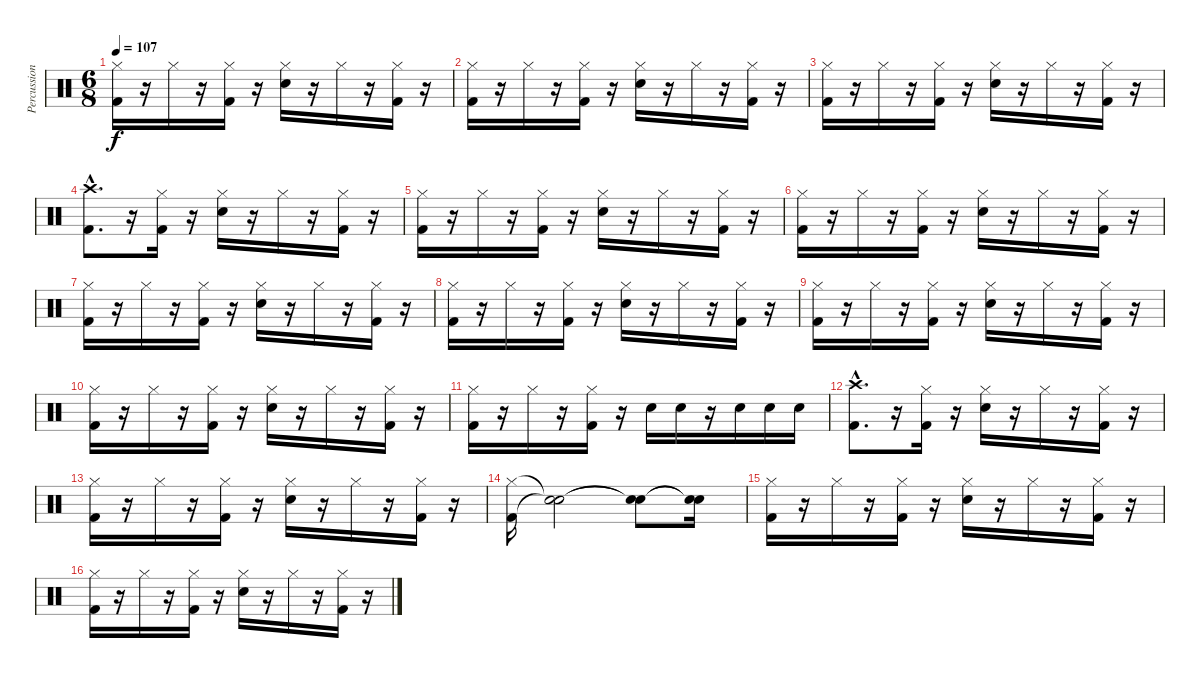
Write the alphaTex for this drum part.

\track ("Percussions" "Percussion") {instrument percussion}
\staff {score}
\articulation defaults
\ts (6 8)
\tempo 107
\clef neutral
\ks c
("Kick (hit) 2" "Hi-Hat (closed)").16{dy f} r.16 "Hi-Hat (closed)".16 r.16 ("Kick (hit) 2" "Hi-Hat (closed)").16 r.16 ("Snare (hit) 2" "Hi-Hat (closed)").16 r.16 "Hi-Hat (closed)".16 r.16 ("Kick (hit) 2" "Hi-Hat (closed)").16 r.16 |
("Kick (hit) 2" "Hi-Hat (closed)").16 r.16 "Hi-Hat (closed)".16 r.16 ("Kick (hit) 2" "Hi-Hat (closed)").16 r.16 ("Snare (hit) 2" "Hi-Hat (closed)").16 r.16 "Hi-Hat (closed)".16 r.16 ("Kick (hit) 2" "Hi-Hat (closed)").16 r.16 |
("Kick (hit) 2" "Hi-Hat (closed)").16 r.16 "Hi-Hat (closed)".16 r.16 ("Kick (hit) 2" "Hi-Hat (closed)").16 r.16 ("Snare (hit) 2" "Hi-Hat (closed)").16 r.16 "Hi-Hat (closed)".16 r.16 ("Kick (hit) 2" "Hi-Hat (closed)").16 r.16 |
("Kick (hit) 2"{hac} "Crash high (hit)"{hac}).8{d} r.16 ("Kick (hit) 2" "Hi-Hat (closed)").16 r.16 ("Snare (hit) 2" "Hi-Hat (closed)").16 r.16 "Hi-Hat (closed)".16 r.16 ("Kick (hit) 2" "Hi-Hat (closed)").16 r.16 |
("Kick (hit) 2" "Hi-Hat (closed)").16 r.16 "Hi-Hat (closed)".16 r.16 ("Kick (hit) 2" "Hi-Hat (closed)").16 r.16 ("Snare (hit) 2" "Hi-Hat (closed)").16 r.16 "Hi-Hat (closed)".16 r.16 ("Kick (hit) 2" "Hi-Hat (closed)").16 r.16 |
("Kick (hit) 2" "Hi-Hat (closed)").16 r.16 "Hi-Hat (closed)".16 r.16 ("Kick (hit) 2" "Hi-Hat (closed)").16 r.16 ("Snare (hit) 2" "Hi-Hat (closed)").16 r.16 "Hi-Hat (closed)".16 r.16 ("Kick (hit) 2" "Hi-Hat (closed)").16 r.16 |
("Kick (hit) 2" "Hi-Hat (closed)").16 r.16 "Hi-Hat (closed)".16 r.16 ("Kick (hit) 2" "Hi-Hat (closed)").16 r.16 ("Snare (hit) 2" "Hi-Hat (closed)").16 r.16 "Hi-Hat (closed)".16 r.16 ("Kick (hit) 2" "Hi-Hat (closed)").16 r.16 |
("Kick (hit) 2" "Hi-Hat (closed)").16 r.16 "Hi-Hat (closed)".16 r.16 ("Kick (hit) 2" "Hi-Hat (closed)").16 r.16 ("Snare (hit) 2" "Hi-Hat (closed)").16 r.16 "Hi-Hat (closed)".16 r.16 ("Kick (hit) 2" "Hi-Hat (closed)").16 r.16 |
("Kick (hit) 2" "Hi-Hat (closed)").16 r.16 "Hi-Hat (closed)".16 r.16 ("Kick (hit) 2" "Hi-Hat (closed)").16 r.16 ("Snare (hit) 2" "Hi-Hat (closed)").16 r.16 "Hi-Hat (closed)".16 r.16 ("Kick (hit) 2" "Hi-Hat (closed)").16 r.16 |
("Kick (hit) 2" "Hi-Hat (closed)").16 r.16 "Hi-Hat (closed)".16 r.16 ("Kick (hit) 2" "Hi-Hat (closed)").16 r.16 ("Snare (hit) 2" "Hi-Hat (closed)").16 r.16 "Hi-Hat (closed)".16 r.16 ("Kick (hit) 2" "Hi-Hat (closed)").16 r.16 |
("Kick (hit) 2" "Hi-Hat (closed)").16 r.16 "Hi-Hat (closed)".16 r.16 ("Kick (hit) 2" "Hi-Hat (closed)").16 r.16 "Snare (hit) 2".16 "Snare (hit) 2".16 r.16 "Snare (hit) 2".16 "Snare (hit) 2".16 "Snare (hit) 2".16 |
("Kick (hit) 2"{hac} "Crash high (hit)"{hac}).8{d} r.16 ("Kick (hit) 2" "Hi-Hat (closed)").16 r.16 ("Snare (hit) 2" "Hi-Hat (closed)").16 r.16 "Hi-Hat (closed)".16 r.16 ("Kick (hit) 2" "Hi-Hat (closed)").16 r.16 |
("Kick (hit) 2" "Hi-Hat (closed)").16 r.16 "Hi-Hat (closed)".16 r.16 ("Kick (hit) 2" "Hi-Hat (closed)").16 r.16 ("Snare (hit) 2" "Hi-Hat (closed)").16 r.16 "Hi-Hat (closed)".16 r.16 ("Kick (hit) 2" "Hi-Hat (closed)").16 r.16 |
("Kick (hit) 2" "Hi-Hat (closed)").16 ("Snare (hit)"{t} "Snare (hit)"{t}).2 ("Snare (hit)"{t} "Snare (hit)"{t}).8 ("Snare (hit)"{t} "Snare (hit)"{t}).16 |
("Kick (hit) 2" "Hi-Hat (closed)").16 r.16 "Hi-Hat (closed)".16 r.16 ("Kick (hit) 2" "Hi-Hat (closed)").16 r.16 ("Snare (hit) 2" "Hi-Hat (closed)").16 r.16 "Hi-Hat (closed)".16 r.16 ("Kick (hit) 2" "Hi-Hat (closed)").16 r.16 |
("Kick (hit) 2" "Hi-Hat (closed)").16 r.16 "Hi-Hat (closed)".16 r.16 ("Kick (hit) 2" "Hi-Hat (closed)").16 r.16 ("Snare (hit) 2" "Hi-Hat (closed)").16 r.16 "Hi-Hat (closed)".16 r.16 ("Kick (hit) 2" "Hi-Hat (closed)").16 r.16
